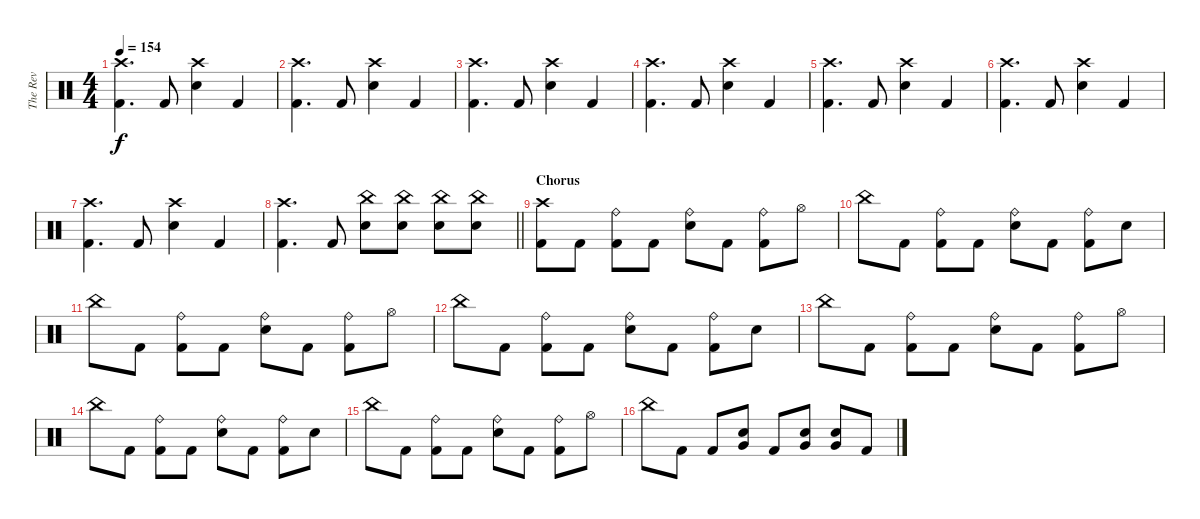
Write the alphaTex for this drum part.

\track ("The Rev" "The Rev") {instrument percussion}
\staff {score}
\articulation defaults
\ts (4 4)
\tempo 154
\clef neutral
\ks c
("Crash high (hit)" "Kick (hit) 2").4{d dy f} "Kick (hit) 2".8 ("Crash high (hit)" "Snare (hit) 2").4 "Kick (hit) 2".4 |
("Crash high (hit)" "Kick (hit) 2").4{d} "Kick (hit) 2".8 ("Crash high (hit)" "Snare (hit) 2").4 "Kick (hit) 2".4 |
("Crash high (hit)" "Kick (hit) 2").4{d} "Kick (hit) 2".8 ("Crash high (hit)" "Snare (hit) 2").4 "Kick (hit) 2".4 |
("Crash high (hit)" "Kick (hit) 2").4{d} "Kick (hit) 2".8 ("Crash high (hit)" "Snare (hit) 2").4 "Kick (hit) 2".4 |
("Crash high (hit)" "Kick (hit) 2").4{d} "Kick (hit) 2".8 ("Crash high (hit)" "Snare (hit) 2").4 "Kick (hit) 2".4 |
("Crash high (hit)" "Kick (hit) 2").4{d} "Kick (hit) 2".8 ("Crash high (hit)" "Snare (hit) 2").4 "Kick (hit) 2".4 |
("Crash high (hit)" "Kick (hit) 2").4{d} "Kick (hit) 2".8 ("Crash high (hit)" "Snare (hit) 2").4 "Kick (hit) 2".4 |
\barLineRight lightlight
("Crash high (hit)" "Kick (hit) 2").4{d} "Kick (hit) 2".8 ("China (hit)" "Snare (hit) 2").8 ("China (hit)" "Snare (hit) 2").8 ("China (hit)" "Snare (hit) 2").8 ("China (hit)" "Snare (hit) 2").8 |
\section ("" "Chorus")
("Crash high (hit)" "Kick (hit) 2").8 "Kick (hit) 2".8 ("Ride (bell)" "Kick (hit) 2").8 "Kick (hit) 2".8 ("Ride (bell)" "Snare (hit) 2").8 "Kick (hit) 2".8 ("Ride (bell)" "Kick (hit) 2").8 "Hi-Hat (open)".8 |
"China (hit)".8 "Kick (hit) 2".8 ("Ride (bell)" "Kick (hit) 2").8 "Kick (hit) 2".8 ("Ride (bell)" "Snare (hit) 2").8 "Kick (hit) 2".8 ("Ride (bell)" "Kick (hit) 2").8 "Snare (hit) 2".8 |
"China (hit)".8 "Kick (hit) 2".8 ("Ride (bell)" "Kick (hit) 2").8 "Kick (hit) 2".8 ("Ride (bell)" "Snare (hit) 2").8 "Kick (hit) 2".8 ("Ride (bell)" "Kick (hit) 2").8 "Hi-Hat (open)".8 |
"China (hit)".8 "Kick (hit) 2".8 ("Ride (bell)" "Kick (hit) 2").8 "Kick (hit) 2".8 ("Ride (bell)" "Snare (hit) 2").8 "Kick (hit) 2".8 ("Ride (bell)" "Kick (hit) 2").8 "Snare (hit) 2".8 |
"China (hit)".8 "Kick (hit) 2".8 ("Ride (bell)" "Kick (hit) 2").8 "Kick (hit) 2".8 ("Ride (bell)" "Snare (hit) 2").8 "Kick (hit) 2".8 ("Ride (bell)" "Kick (hit) 2").8 "Hi-Hat (open)".8 |
"China (hit)".8 "Kick (hit) 2".8 ("Ride (bell)" "Kick (hit) 2").8 "Kick (hit) 2".8 ("Ride (bell)" "Snare (hit) 2").8 "Kick (hit) 2".8 ("Ride (bell)" "Kick (hit) 2").8 "Snare (hit) 2".8 |
"China (hit)".8 "Kick (hit) 2".8 ("Ride (bell)" "Kick (hit) 2").8 "Kick (hit) 2".8 ("Ride (bell)" "Snare (hit) 2").8 "Kick (hit) 2".8 ("Ride (bell)" "Kick (hit) 2").8 "Hi-Hat (open)".8 |
"China (hit)".8 "Kick (hit) 2".8 "Kick (hit) 2".8 ("Snare (hit) 2" "Very Low Tom (hit)").8 "Kick (hit) 2".8 ("Snare (hit) 2" "Very Low Tom (hit)").8 ("Snare (hit) 2" "Very Low Tom (hit)").8 "Kick (hit) 2".8
